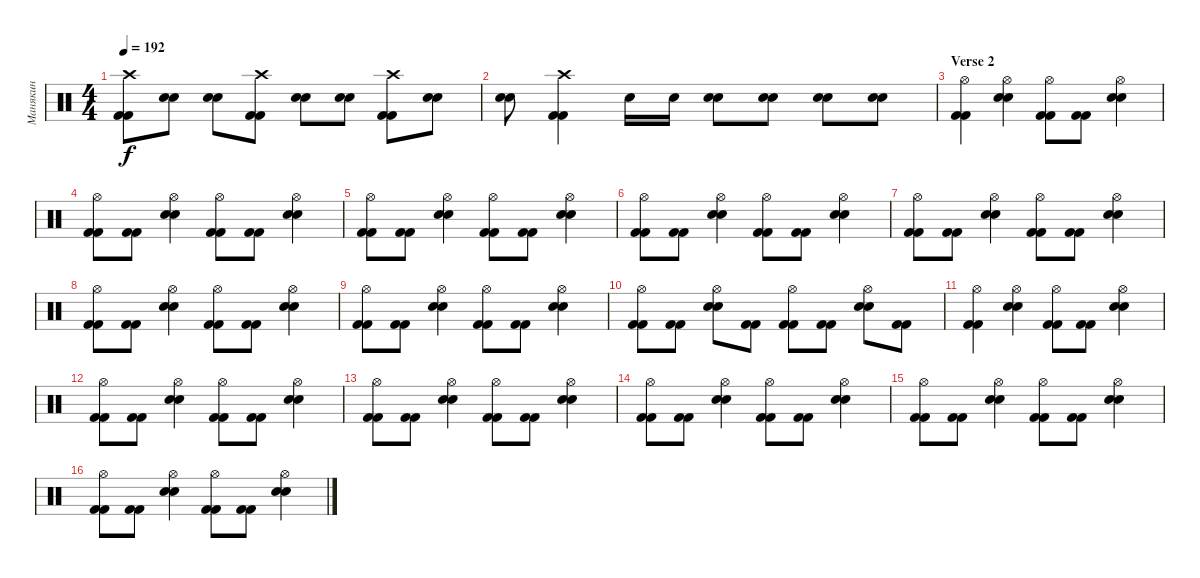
\track ("Манякин" "Манякин") {instrument percussion}
\staff {score}
\articulation defaults
\ts (4 4)
\tempo 192
\clef neutral
\ks c
("Crash high (hit)" "Kick (hit) 2" "Kick (hit) 2").8{dy f} ("Electric Snare (hit)" "Electric Snare (hit)").8 ("Electric Snare (hit)" "Electric Snare (hit)").8 ("Crash high (hit)" "Kick (hit) 2" "Kick (hit) 2").8 ("Electric Snare (hit)" "Electric Snare (hit)").8 ("Electric Snare (hit)" "Electric Snare (hit)").8 ("Crash high (hit)" "Kick (hit) 2" "Kick (hit) 2").8 ("Electric Snare (hit)" "Electric Snare (hit)").8 |
("Electric Snare (hit)" "Electric Snare (hit)").8 ("Crash high (hit)" "Kick (hit) 2" "Kick (hit) 2").4 "Electric Snare (hit)".16 "Electric Snare (hit)".16 ("Electric Snare (hit)" "Electric Snare (hit)").8 ("Electric Snare (hit)" "Electric Snare (hit)").8 ("Electric Snare (hit)" "Electric Snare (hit)").8 ("Electric Snare (hit)" "Electric Snare (hit)").8 |
\section ("" "Verse 2")
("Hi-Hat (open)" "Kick (hit) 2" "Kick (hit) 2").4 ("Hi-Hat (open)" "Electric Snare (hit)" "Electric Snare (hit)").4 ("Hi-Hat (open)" "Kick (hit) 2" "Kick (hit) 2").8 ("Kick (hit) 2" "Kick (hit) 2").8 ("Hi-Hat (open)" "Electric Snare (hit)" "Electric Snare (hit)").4 |
("Hi-Hat (open)" "Kick (hit) 2" "Kick (hit) 2").8 ("Kick (hit) 2" "Kick (hit) 2").8 ("Hi-Hat (open)" "Electric Snare (hit)" "Electric Snare (hit)").4 ("Hi-Hat (open)" "Kick (hit) 2" "Kick (hit) 2").8 ("Kick (hit) 2" "Kick (hit) 2").8 ("Hi-Hat (open)" "Electric Snare (hit)" "Electric Snare (hit)").4 |
("Hi-Hat (open)" "Kick (hit) 2" "Kick (hit) 2").8 ("Kick (hit) 2" "Kick (hit) 2").8 ("Hi-Hat (open)" "Electric Snare (hit)" "Electric Snare (hit)").4 ("Hi-Hat (open)" "Kick (hit) 2" "Kick (hit) 2").8 ("Kick (hit) 2" "Kick (hit) 2").8 ("Hi-Hat (open)" "Electric Snare (hit)" "Electric Snare (hit)").4 |
("Hi-Hat (open)" "Kick (hit) 2" "Kick (hit) 2").8 ("Kick (hit) 2" "Kick (hit) 2").8 ("Hi-Hat (open)" "Electric Snare (hit)" "Electric Snare (hit)").4 ("Hi-Hat (open)" "Kick (hit) 2" "Kick (hit) 2").8 ("Kick (hit) 2" "Kick (hit) 2").8 ("Hi-Hat (open)" "Electric Snare (hit)" "Electric Snare (hit)").4 |
("Hi-Hat (open)" "Kick (hit) 2" "Kick (hit) 2").8 ("Kick (hit) 2" "Kick (hit) 2").8 ("Hi-Hat (open)" "Electric Snare (hit)" "Electric Snare (hit)").4 ("Hi-Hat (open)" "Kick (hit) 2" "Kick (hit) 2").8 ("Kick (hit) 2" "Kick (hit) 2").8 ("Hi-Hat (open)" "Electric Snare (hit)" "Electric Snare (hit)").4 |
("Hi-Hat (open)" "Kick (hit) 2" "Kick (hit) 2").8 ("Kick (hit) 2" "Kick (hit) 2").8 ("Hi-Hat (open)" "Electric Snare (hit)" "Electric Snare (hit)").4 ("Hi-Hat (open)" "Kick (hit) 2" "Kick (hit) 2").8 ("Kick (hit) 2" "Kick (hit) 2").8 ("Hi-Hat (open)" "Electric Snare (hit)" "Electric Snare (hit)").4 |
("Hi-Hat (open)" "Kick (hit) 2" "Kick (hit) 2").8 ("Kick (hit) 2" "Kick (hit) 2").8 ("Hi-Hat (open)" "Electric Snare (hit)" "Electric Snare (hit)").4 ("Hi-Hat (open)" "Kick (hit) 2" "Kick (hit) 2").8 ("Kick (hit) 2" "Kick (hit) 2").8 ("Hi-Hat (open)" "Electric Snare (hit)" "Electric Snare (hit)").4 |
("Hi-Hat (open)" "Kick (hit) 2" "Kick (hit) 2").8 ("Kick (hit) 2" "Kick (hit) 2").8 ("Hi-Hat (open)" "Electric Snare (hit)" "Electric Snare (hit)").8 ("Kick (hit) 2" "Kick (hit) 2").8 ("Hi-Hat (open)" "Kick (hit) 2" "Kick (hit) 2").8 ("Kick (hit) 2" "Kick (hit) 2").8 ("Hi-Hat (open)" "Electric Snare (hit)" "Electric Snare (hit)").8 ("Kick (hit) 2" "Kick (hit) 2").8 |
("Hi-Hat (open)" "Kick (hit) 2" "Kick (hit) 2").4 ("Hi-Hat (open)" "Electric Snare (hit)" "Electric Snare (hit)").4 ("Hi-Hat (open)" "Kick (hit) 2" "Kick (hit) 2").8 ("Kick (hit) 2" "Kick (hit) 2").8 ("Hi-Hat (open)" "Electric Snare (hit)" "Electric Snare (hit)").4 |
("Hi-Hat (open)" "Kick (hit) 2" "Kick (hit) 2").8 ("Kick (hit) 2" "Kick (hit) 2").8 ("Hi-Hat (open)" "Electric Snare (hit)" "Electric Snare (hit)").4 ("Hi-Hat (open)" "Kick (hit) 2" "Kick (hit) 2").8 ("Kick (hit) 2" "Kick (hit) 2").8 ("Hi-Hat (open)" "Electric Snare (hit)" "Electric Snare (hit)").4 |
("Hi-Hat (open)" "Kick (hit) 2" "Kick (hit) 2").8 ("Kick (hit) 2" "Kick (hit) 2").8 ("Hi-Hat (open)" "Electric Snare (hit)" "Electric Snare (hit)").4 ("Hi-Hat (open)" "Kick (hit) 2" "Kick (hit) 2").8 ("Kick (hit) 2" "Kick (hit) 2").8 ("Hi-Hat (open)" "Electric Snare (hit)" "Electric Snare (hit)").4 |
("Hi-Hat (open)" "Kick (hit) 2" "Kick (hit) 2").8 ("Kick (hit) 2" "Kick (hit) 2").8 ("Hi-Hat (open)" "Electric Snare (hit)" "Electric Snare (hit)").4 ("Hi-Hat (open)" "Kick (hit) 2" "Kick (hit) 2").8 ("Kick (hit) 2" "Kick (hit) 2").8 ("Hi-Hat (open)" "Electric Snare (hit)" "Electric Snare (hit)").4 |
("Hi-Hat (open)" "Kick (hit) 2" "Kick (hit) 2").8 ("Kick (hit) 2" "Kick (hit) 2").8 ("Hi-Hat (open)" "Electric Snare (hit)" "Electric Snare (hit)").4 ("Hi-Hat (open)" "Kick (hit) 2" "Kick (hit) 2").8 ("Kick (hit) 2" "Kick (hit) 2").8 ("Hi-Hat (open)" "Electric Snare (hit)" "Electric Snare (hit)").4 |
("Hi-Hat (open)" "Kick (hit) 2" "Kick (hit) 2").8 ("Kick (hit) 2" "Kick (hit) 2").8 ("Hi-Hat (open)" "Electric Snare (hit)" "Electric Snare (hit)").4 ("Hi-Hat (open)" "Kick (hit) 2" "Kick (hit) 2").8 ("Kick (hit) 2" "Kick (hit) 2").8 ("Hi-Hat (open)" "Electric Snare (hit)" "Electric Snare (hit)").4
